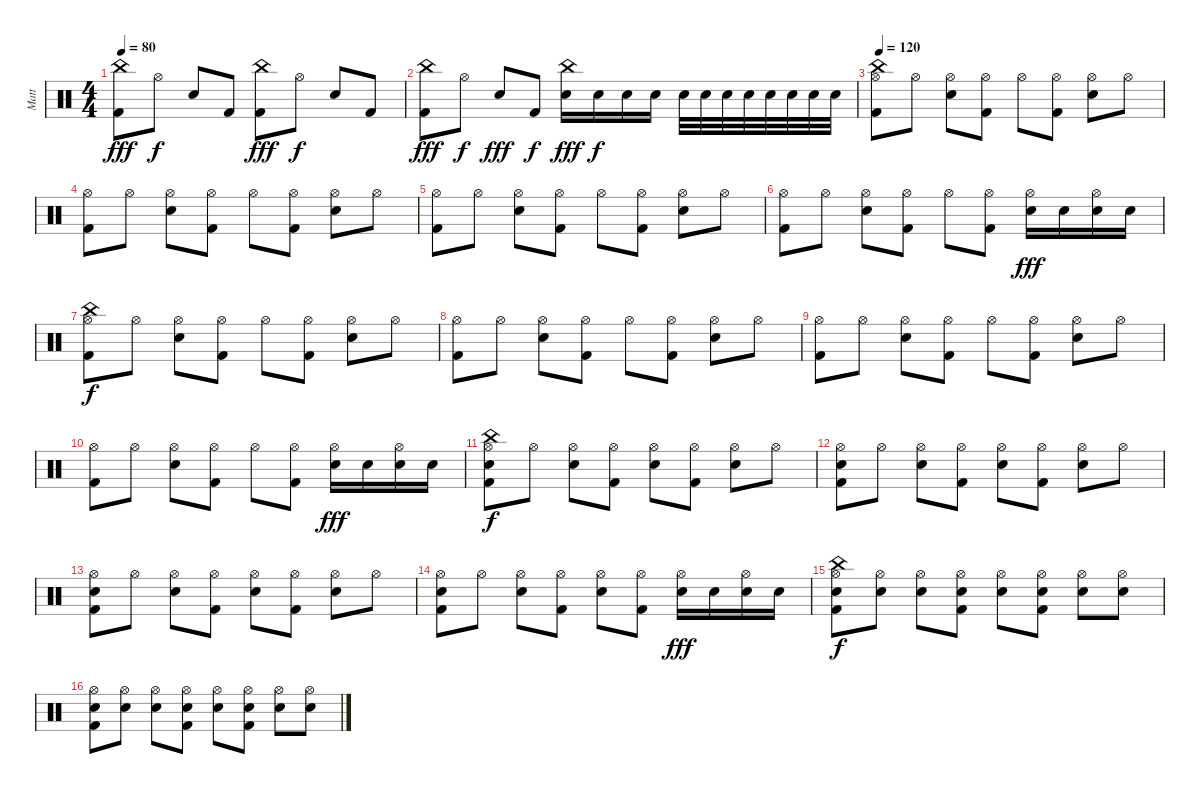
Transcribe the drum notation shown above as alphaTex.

\track ("Matt" "Matt") {instrument percussion}
\staff {score}
\articulation defaults
\ts (4 4)
\tempo 80
\clef neutral
\ks c
("China (hit)" "Kick (hit) 2").8{dy fff} "Hi-Hat (open)".8{dy f} "Snare (hit) 2".8 "Kick (hit) 2".8 ("China (hit)" "Kick (hit) 2").8{dy fff} "Hi-Hat (open)".8{dy f} "Snare (hit) 2".8 "Kick (hit) 2".8 |
("China (hit)" "Kick (hit) 2").8{dy fff} "Hi-Hat (open)".8{dy f} "Snare (hit) 2".8{dy fff} "Kick (hit) 2".8{dy f} ("China (hit)" "Electric Snare (hit)").16{dy fff} "Electric Snare (hit)".16{dy f} "Electric Snare (hit)".16 "Electric Snare (hit)".16 "Electric Snare (hit)".32 "Electric Snare (hit)".32 "Electric Snare (hit)".32 "Electric Snare (hit)".32 "Electric Snare (hit)".32 "Electric Snare (hit)".32 "Electric Snare (hit)".32 "Electric Snare (hit)".32 |
\tempo 120
("China (hit)" "Hi-Hat (open)" "Kick (hit) 2").8 "Hi-Hat (open)".8 ("Hi-Hat (open)" "Snare (hit) 2").8 ("Hi-Hat (open)" "Kick (hit) 2").8 "Hi-Hat (open)".8 ("Hi-Hat (open)" "Kick (hit) 2").8 ("Hi-Hat (open)" "Snare (hit) 2").8 "Hi-Hat (open)".8 |
("Hi-Hat (open)" "Kick (hit) 2").8 "Hi-Hat (open)".8 ("Hi-Hat (open)" "Snare (hit) 2").8 ("Hi-Hat (open)" "Kick (hit) 2").8 "Hi-Hat (open)".8 ("Hi-Hat (open)" "Kick (hit) 2").8 ("Hi-Hat (open)" "Snare (hit) 2").8 "Hi-Hat (open)".8 |
("Hi-Hat (open)" "Kick (hit) 2").8 "Hi-Hat (open)".8 ("Hi-Hat (open)" "Snare (hit) 2").8 ("Hi-Hat (open)" "Kick (hit) 2").8 "Hi-Hat (open)".8 ("Hi-Hat (open)" "Kick (hit) 2").8 ("Hi-Hat (open)" "Snare (hit) 2").8 "Hi-Hat (open)".8 |
("Hi-Hat (open)" "Kick (hit) 2").8 "Hi-Hat (open)".8 ("Hi-Hat (open)" "Snare (hit) 2").8 ("Hi-Hat (open)" "Kick (hit) 2").8 "Hi-Hat (open)".8 ("Hi-Hat (open)" "Kick (hit) 2").8 ("Hi-Hat (open)" "Electric Snare (hit)").16{dy fff} "Electric Snare (hit)".16 ("Hi-Hat (open)" "Electric Snare (hit)").16 "Electric Snare (hit)".16 |
("China (hit)" "Hi-Hat (open)" "Kick (hit) 2").8{dy f} "Hi-Hat (open)".8 ("Hi-Hat (open)" "Snare (hit) 2").8 ("Hi-Hat (open)" "Kick (hit) 2").8 "Hi-Hat (open)".8 ("Hi-Hat (open)" "Kick (hit) 2").8 ("Hi-Hat (open)" "Snare (hit) 2").8 "Hi-Hat (open)".8 |
("Hi-Hat (open)" "Kick (hit) 2").8 "Hi-Hat (open)".8 ("Hi-Hat (open)" "Snare (hit) 2").8 ("Hi-Hat (open)" "Kick (hit) 2").8 "Hi-Hat (open)".8 ("Hi-Hat (open)" "Kick (hit) 2").8 ("Hi-Hat (open)" "Snare (hit) 2").8 "Hi-Hat (open)".8 |
("Hi-Hat (open)" "Kick (hit) 2").8 "Hi-Hat (open)".8 ("Hi-Hat (open)" "Snare (hit) 2").8 ("Hi-Hat (open)" "Kick (hit) 2").8 "Hi-Hat (open)".8 ("Hi-Hat (open)" "Kick (hit) 2").8 ("Hi-Hat (open)" "Snare (hit) 2").8 "Hi-Hat (open)".8 |
("Hi-Hat (open)" "Kick (hit) 2").8 "Hi-Hat (open)".8 ("Hi-Hat (open)" "Snare (hit) 2").8 ("Hi-Hat (open)" "Kick (hit) 2").8 "Hi-Hat (open)".8 ("Hi-Hat (open)" "Kick (hit) 2").8 ("Hi-Hat (open)" "Electric Snare (hit)").16{dy fff} "Electric Snare (hit)".16 ("Hi-Hat (open)" "Electric Snare (hit)").16 "Electric Snare (hit)".16 |
("China (hit)" "Snare (hit) 2" "Hi-Hat (open)" "Kick (hit) 2").8{dy f} "Hi-Hat (open)".8 ("Hi-Hat (open)" "Snare (hit) 2").8 ("Hi-Hat (open)" "Kick (hit) 2").8 ("Snare (hit) 2" "Hi-Hat (open)").8 ("Hi-Hat (open)" "Kick (hit) 2").8 ("Hi-Hat (open)" "Snare (hit) 2").8 "Hi-Hat (open)".8 |
("Snare (hit) 2" "Hi-Hat (open)" "Kick (hit) 2").8 "Hi-Hat (open)".8 ("Hi-Hat (open)" "Snare (hit) 2").8 ("Hi-Hat (open)" "Kick (hit) 2").8 ("Snare (hit) 2" "Hi-Hat (open)").8 ("Hi-Hat (open)" "Kick (hit) 2").8 ("Hi-Hat (open)" "Snare (hit) 2").8 "Hi-Hat (open)".8 |
("Snare (hit) 2" "Hi-Hat (open)" "Kick (hit) 2").8 "Hi-Hat (open)".8 ("Hi-Hat (open)" "Snare (hit) 2").8 ("Hi-Hat (open)" "Kick (hit) 2").8 ("Snare (hit) 2" "Hi-Hat (open)").8 ("Hi-Hat (open)" "Kick (hit) 2").8 ("Hi-Hat (open)" "Snare (hit) 2").8 "Hi-Hat (open)".8 |
("Snare (hit) 2" "Hi-Hat (open)" "Kick (hit) 2").8 "Hi-Hat (open)".8 ("Hi-Hat (open)" "Snare (hit) 2").8 ("Hi-Hat (open)" "Kick (hit) 2").8 ("Snare (hit) 2" "Hi-Hat (open)").8 ("Hi-Hat (open)" "Kick (hit) 2").8 ("Hi-Hat (open)" "Electric Snare (hit)").16{dy fff} "Electric Snare (hit)".16 ("Hi-Hat (open)" "Electric Snare (hit)").16 "Electric Snare (hit)".16 |
("China (hit)" "Snare (hit) 2" "Hi-Hat (open)" "Kick (hit) 2").8{dy f} ("Snare (hit) 2" "Hi-Hat (open)").8 ("Hi-Hat (open)" "Snare (hit) 2").8 ("Snare (hit) 2" "Hi-Hat (open)" "Kick (hit) 2").8 ("Snare (hit) 2" "Hi-Hat (open)").8 ("Snare (hit) 2" "Hi-Hat (open)" "Kick (hit) 2").8 ("Hi-Hat (open)" "Snare (hit) 2").8 ("Snare (hit) 2" "Hi-Hat (open)").8 |
("Snare (hit) 2" "Hi-Hat (open)" "Kick (hit) 2").8 ("Snare (hit) 2" "Hi-Hat (open)").8 ("Hi-Hat (open)" "Snare (hit) 2").8 ("Snare (hit) 2" "Hi-Hat (open)" "Kick (hit) 2").8 ("Snare (hit) 2" "Hi-Hat (open)").8 ("Snare (hit) 2" "Hi-Hat (open)" "Kick (hit) 2").8 ("Hi-Hat (open)" "Snare (hit) 2").8 ("Snare (hit) 2" "Hi-Hat (open)").8
